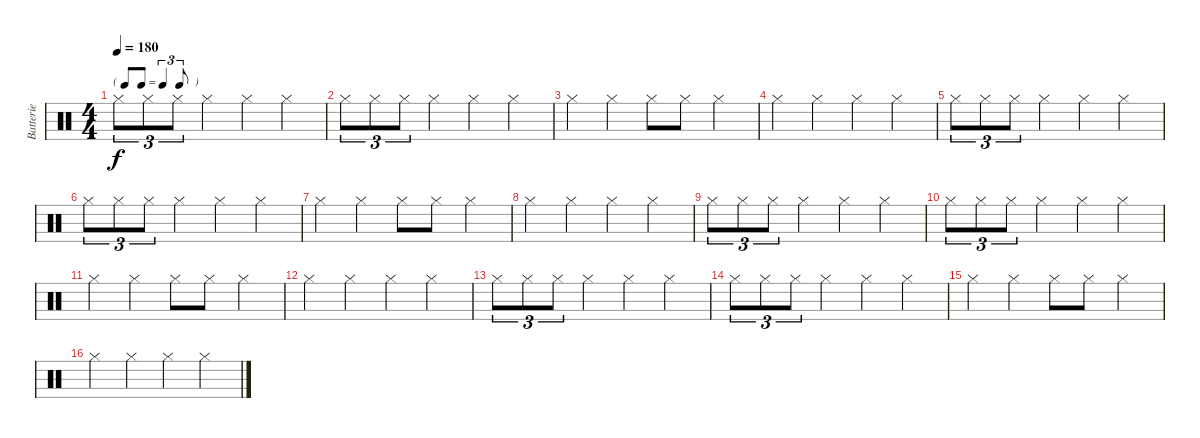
\track ("Batterie" "Batterie") {instrument percussion}
\staff {score}
\articulation defaults
\ts (4 4)
\tf triplet8th
\tempo 180
\clef neutral
\ks c "Hi-Hat (closed)".8{tu (3 2) dy f} "Hi-Hat (closed)".8{tu (3 2)} "Hi-Hat (closed)".8{tu (3 2)} "Hi-Hat (closed)".4 "Hi-Hat (closed)".4 "Hi-Hat (closed)".4
|
"Hi-Hat (closed)".8{tu (3 2)} "Hi-Hat (closed)".8{tu (3 2)} "Hi-Hat (closed)".8{tu (3 2)} "Hi-Hat (closed)".4 "Hi-Hat (closed)".4 "Hi-Hat (closed)".4 |
"Hi-Hat (closed)".4 "Hi-Hat (closed)".4 "Hi-Hat (closed)".8 "Hi-Hat (closed)".8 "Hi-Hat (closed)".4 |
"Hi-Hat (closed)".4 "Hi-Hat (closed)".4 "Hi-Hat (closed)".4 "Hi-Hat (closed)".4 |
"Hi-Hat (closed)".8{tu (3 2)} "Hi-Hat (closed)".8{tu (3 2)} "Hi-Hat (closed)".8{tu (3 2)} "Hi-Hat (closed)".4 "Hi-Hat (closed)".4 "Hi-Hat (closed)".4 |
"Hi-Hat (closed)".8{tu (3 2)} "Hi-Hat (closed)".8{tu (3 2)} "Hi-Hat (closed)".8{tu (3 2)} "Hi-Hat (closed)".4 "Hi-Hat (closed)".4 "Hi-Hat (closed)".4 |
"Hi-Hat (closed)".4 "Hi-Hat (closed)".4 "Hi-Hat (closed)".8 "Hi-Hat (closed)".8 "Hi-Hat (closed)".4 |
"Hi-Hat (closed)".4 "Hi-Hat (closed)".4 "Hi-Hat (closed)".4 "Hi-Hat (closed)".4 |
"Hi-Hat (closed)".8{tu (3 2)} "Hi-Hat (closed)".8{tu (3 2)} "Hi-Hat (closed)".8{tu (3 2)} "Hi-Hat (closed)".4 "Hi-Hat (closed)".4 "Hi-Hat (closed)".4 |
"Hi-Hat (closed)".8{tu (3 2)} "Hi-Hat (closed)".8{tu (3 2)} "Hi-Hat (closed)".8{tu (3 2)} "Hi-Hat (closed)".4 "Hi-Hat (closed)".4 "Hi-Hat (closed)".4 |
"Hi-Hat (closed)".4 "Hi-Hat (closed)".4 "Hi-Hat (closed)".8 "Hi-Hat (closed)".8 "Hi-Hat (closed)".4 |
"Hi-Hat (closed)".4 "Hi-Hat (closed)".4 "Hi-Hat (closed)".4 "Hi-Hat (closed)".4 |
"Hi-Hat (closed)".8{tu (3 2)} "Hi-Hat (closed)".8{tu (3 2)} "Hi-Hat (closed)".8{tu (3 2)} "Hi-Hat (closed)".4 "Hi-Hat (closed)".4 "Hi-Hat (closed)".4 |
"Hi-Hat (closed)".8{tu (3 2)} "Hi-Hat (closed)".8{tu (3 2)} "Hi-Hat (closed)".8{tu (3 2)} "Hi-Hat (closed)".4 "Hi-Hat (closed)".4 "Hi-Hat (closed)".4 |
"Hi-Hat (closed)".4 "Hi-Hat (closed)".4 "Hi-Hat (closed)".8 "Hi-Hat (closed)".8 "Hi-Hat (closed)".4 |
"Hi-Hat (closed)".4 "Hi-Hat (closed)".4 "Hi-Hat (closed)".4 "Hi-Hat (closed)".4
